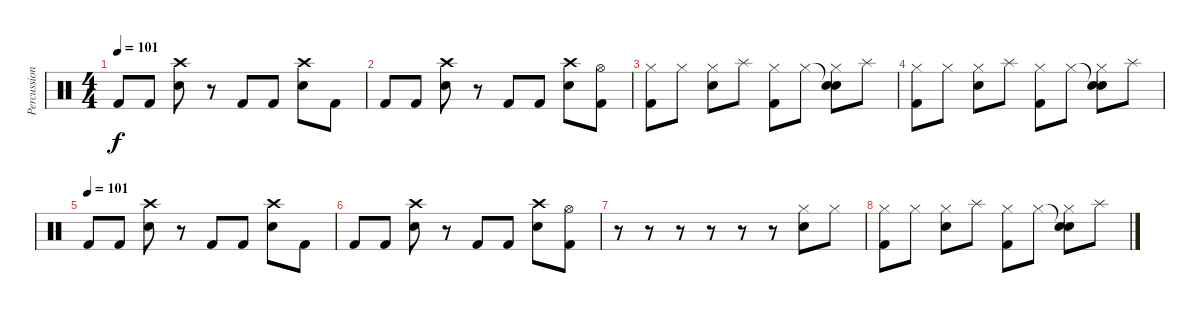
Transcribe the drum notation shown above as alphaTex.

\track ("Percussion" "Percussion") {instrument percussion}
\staff {score}
\articulation defaults
\ts (4 4)
\tempo 101
\clef neutral
\ks c "Kick (hit) 2".8{dy f} "Kick (hit) 2".8
("Crash high (hit)" "Electric Snare (hit)").8 r.8 "Kick (hit) 2".8 "Kick (hit) 2".8 ("Crash high (hit)" "Electric Snare (hit)").8 "Kick (hit) 2".8 |
"Kick (hit) 2".8 "Kick (hit) 2".8 ("Crash high (hit)" "Electric Snare (hit)").8 r.8 "Kick (hit) 2".8 "Kick (hit) 2".8 ("Crash high (hit)" "Electric Snare (hit)").8 ("Hi-Hat (open)" "Kick (hit) 2").8 |
("Hi-Hat (closed)" "Kick (hit) 2").8 "Hi-Hat (closed)".8 ("Hi-Hat (closed)" "Electric Snare (hit)").8 "Splash (hit)".8 ("Hi-Hat (closed)" "Kick (hit) 2").8 "Hi-Hat (closed)".8 ("Snare (hit)"{t} "Hi-Hat (closed)" "Electric Snare (hit)").8 "Splash (hit)".8 |
("Hi-Hat (closed)" "Kick (hit) 2").8 "Hi-Hat (closed)".8 ("Hi-Hat (closed)" "Electric Snare (hit)").8 "Splash (hit)".8 ("Hi-Hat (closed)" "Kick (hit) 2").8 "Hi-Hat (closed)".8 ("Snare (hit)"{t} "Hi-Hat (closed)" "Electric Snare (hit)").8 "Splash (hit)".8 |
\tempo (101)
"Kick (hit) 2".8 "Kick (hit) 2".8 ("Crash high (hit)" "Electric Snare (hit)").8 r.8 "Kick (hit) 2".8 "Kick (hit) 2".8 ("Crash high (hit)" "Electric Snare (hit)").8 "Kick (hit) 2".8 |
"Kick (hit) 2".8 "Kick (hit) 2".8 ("Crash high (hit)" "Electric Snare (hit)").8 r.8 "Kick (hit) 2".8 "Kick (hit) 2".8 ("Crash high (hit)" "Electric Snare (hit)").8 ("Hi-Hat (open)" "Kick (hit) 2").8 |
r.8 r.8 r.8 r.8 r.8 r.8 ("Hi-Hat (closed)" "Electric Snare (hit)").8 "Hi-Hat (closed)".8 |
("Hi-Hat (closed)" "Kick (hit) 2").8 "Hi-Hat (closed)".8 ("Hi-Hat (closed)" "Electric Snare (hit)").8 "Splash (hit)".8 ("Hi-Hat (closed)" "Kick (hit) 2").8 "Hi-Hat (closed)".8 ("Snare (hit)"{t} "Hi-Hat (closed)" "Electric Snare (hit)").8 "Splash (hit)".8
